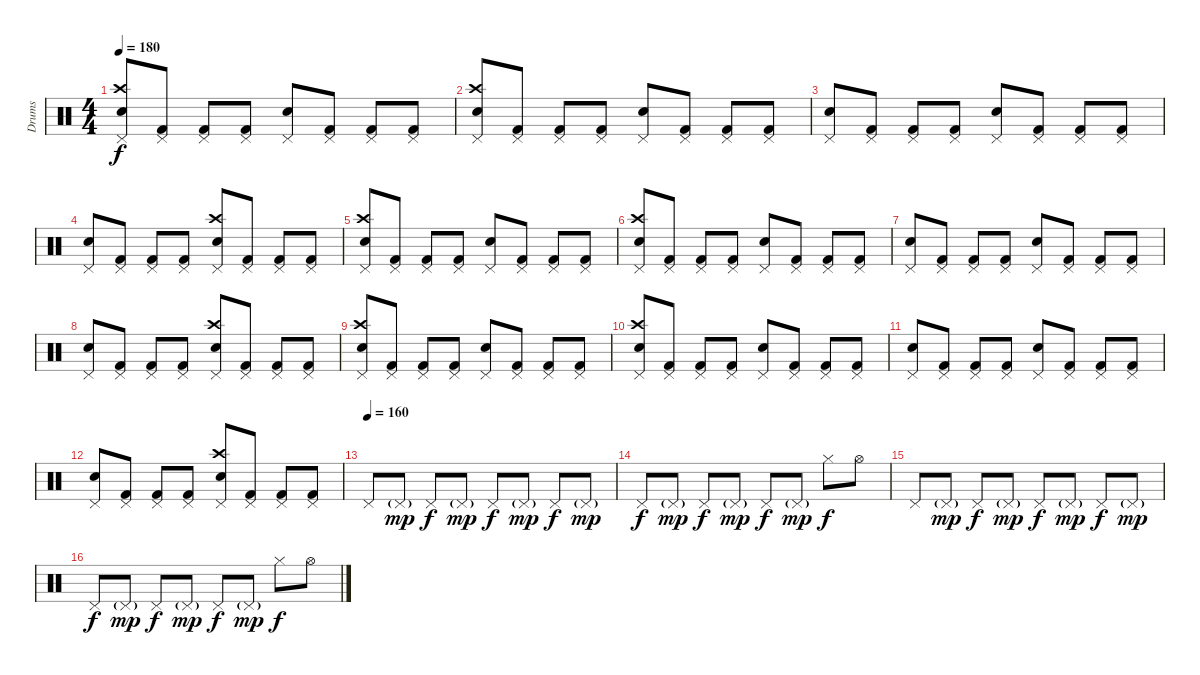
\track ("Drums" "Drums") {instrument percussion}
\staff {score}
\articulation defaults
\ts (4 4)
\tempo 180
\clef neutral
\ks c
("Pedal Hi-Hat (hit)" "Crash high (hit)" "Snare (hit) 2").8{dy f} ("Pedal Hi-Hat (hit)" "Kick (hit) 2").8 ("Pedal Hi-Hat (hit)" "Kick (hit) 2").8 ("Pedal Hi-Hat (hit)" "Kick (hit) 2").8 ("Pedal Hi-Hat (hit)" "Snare (hit) 2").8 ("Pedal Hi-Hat (hit)" "Kick (hit) 2").8 ("Pedal Hi-Hat (hit)" "Kick (hit) 2").8 ("Pedal Hi-Hat (hit)" "Kick (hit) 2").8 |
("Pedal Hi-Hat (hit)" "Crash high (hit)" "Snare (hit) 2").8 ("Pedal Hi-Hat (hit)" "Kick (hit) 2").8 ("Pedal Hi-Hat (hit)" "Kick (hit) 2").8 ("Pedal Hi-Hat (hit)" "Kick (hit) 2").8 ("Pedal Hi-Hat (hit)" "Snare (hit) 2").8 ("Pedal Hi-Hat (hit)" "Kick (hit) 2").8 ("Pedal Hi-Hat (hit)" "Kick (hit) 2").8 ("Pedal Hi-Hat (hit)" "Kick (hit) 2").8 |
("Pedal Hi-Hat (hit)" "Snare (hit) 2").8 ("Pedal Hi-Hat (hit)" "Kick (hit) 2").8 ("Pedal Hi-Hat (hit)" "Kick (hit) 2").8 ("Pedal Hi-Hat (hit)" "Kick (hit) 2").8 ("Pedal Hi-Hat (hit)" "Snare (hit) 2").8 ("Pedal Hi-Hat (hit)" "Kick (hit) 2").8 ("Pedal Hi-Hat (hit)" "Kick (hit) 2").8 ("Pedal Hi-Hat (hit)" "Kick (hit) 2").8 |
("Pedal Hi-Hat (hit)" "Snare (hit) 2").8 ("Pedal Hi-Hat (hit)" "Kick (hit) 2").8 ("Pedal Hi-Hat (hit)" "Kick (hit) 2").8 ("Pedal Hi-Hat (hit)" "Kick (hit) 2").8 ("Pedal Hi-Hat (hit)" "Crash high (hit)" "Snare (hit) 2").8 ("Pedal Hi-Hat (hit)" "Kick (hit) 2").8 ("Pedal Hi-Hat (hit)" "Kick (hit) 2").8 ("Pedal Hi-Hat (hit)" "Kick (hit) 2").8 |
("Pedal Hi-Hat (hit)" "Crash high (hit)" "Snare (hit) 2").8 ("Pedal Hi-Hat (hit)" "Kick (hit) 2").8 ("Pedal Hi-Hat (hit)" "Kick (hit) 2").8 ("Pedal Hi-Hat (hit)" "Kick (hit) 2").8 ("Pedal Hi-Hat (hit)" "Snare (hit) 2").8 ("Pedal Hi-Hat (hit)" "Kick (hit) 2").8 ("Pedal Hi-Hat (hit)" "Kick (hit) 2").8 ("Pedal Hi-Hat (hit)" "Kick (hit) 2").8 |
("Pedal Hi-Hat (hit)" "Crash high (hit)" "Snare (hit) 2").8 ("Pedal Hi-Hat (hit)" "Kick (hit) 2").8 ("Pedal Hi-Hat (hit)" "Kick (hit) 2").8 ("Pedal Hi-Hat (hit)" "Kick (hit) 2").8 ("Pedal Hi-Hat (hit)" "Snare (hit) 2").8 ("Pedal Hi-Hat (hit)" "Kick (hit) 2").8 ("Pedal Hi-Hat (hit)" "Kick (hit) 2").8 ("Pedal Hi-Hat (hit)" "Kick (hit) 2").8 |
("Pedal Hi-Hat (hit)" "Snare (hit) 2").8 ("Pedal Hi-Hat (hit)" "Kick (hit) 2").8 ("Pedal Hi-Hat (hit)" "Kick (hit) 2").8 ("Pedal Hi-Hat (hit)" "Kick (hit) 2").8 ("Pedal Hi-Hat (hit)" "Snare (hit) 2").8 ("Pedal Hi-Hat (hit)" "Kick (hit) 2").8 ("Pedal Hi-Hat (hit)" "Kick (hit) 2").8 ("Pedal Hi-Hat (hit)" "Kick (hit) 2").8 |
("Pedal Hi-Hat (hit)" "Snare (hit) 2").8 ("Pedal Hi-Hat (hit)" "Kick (hit) 2").8 ("Pedal Hi-Hat (hit)" "Kick (hit) 2").8 ("Pedal Hi-Hat (hit)" "Kick (hit) 2").8 ("Pedal Hi-Hat (hit)" "Crash high (hit)" "Snare (hit) 2").8 ("Pedal Hi-Hat (hit)" "Kick (hit) 2").8 ("Pedal Hi-Hat (hit)" "Kick (hit) 2").8 ("Pedal Hi-Hat (hit)" "Kick (hit) 2").8 |
("Pedal Hi-Hat (hit)" "Crash high (hit)" "Snare (hit) 2").8 ("Pedal Hi-Hat (hit)" "Kick (hit) 2").8 ("Pedal Hi-Hat (hit)" "Kick (hit) 2").8 ("Pedal Hi-Hat (hit)" "Kick (hit) 2").8 ("Pedal Hi-Hat (hit)" "Snare (hit) 2").8 ("Pedal Hi-Hat (hit)" "Kick (hit) 2").8 ("Pedal Hi-Hat (hit)" "Kick (hit) 2").8 ("Pedal Hi-Hat (hit)" "Kick (hit) 2").8 |
("Pedal Hi-Hat (hit)" "Crash high (hit)" "Snare (hit) 2").8 ("Pedal Hi-Hat (hit)" "Kick (hit) 2").8 ("Pedal Hi-Hat (hit)" "Kick (hit) 2").8 ("Pedal Hi-Hat (hit)" "Kick (hit) 2").8 ("Pedal Hi-Hat (hit)" "Snare (hit) 2").8 ("Pedal Hi-Hat (hit)" "Kick (hit) 2").8 ("Pedal Hi-Hat (hit)" "Kick (hit) 2").8 ("Pedal Hi-Hat (hit)" "Kick (hit) 2").8 |
("Pedal Hi-Hat (hit)" "Snare (hit) 2").8 ("Pedal Hi-Hat (hit)" "Kick (hit) 2").8 ("Pedal Hi-Hat (hit)" "Kick (hit) 2").8 ("Pedal Hi-Hat (hit)" "Kick (hit) 2").8 ("Pedal Hi-Hat (hit)" "Snare (hit) 2").8 ("Pedal Hi-Hat (hit)" "Kick (hit) 2").8 ("Pedal Hi-Hat (hit)" "Kick (hit) 2").8 ("Pedal Hi-Hat (hit)" "Kick (hit) 2").8 |
("Pedal Hi-Hat (hit)" "Snare (hit) 2").8 ("Pedal Hi-Hat (hit)" "Kick (hit) 2").8 ("Pedal Hi-Hat (hit)" "Kick (hit) 2").8 ("Pedal Hi-Hat (hit)" "Kick (hit) 2").8 ("Pedal Hi-Hat (hit)" "Crash high (hit)" "Snare (hit) 2").8 ("Pedal Hi-Hat (hit)" "Kick (hit) 2").8 ("Pedal Hi-Hat (hit)" "Kick (hit) 2").8 ("Pedal Hi-Hat (hit)" "Kick (hit) 2").8 |
\tempo (160)
"Pedal Hi-Hat (hit)".8 "Pedal Hi-Hat (hit)"{g}.8{dy mp} "Pedal Hi-Hat (hit)".8{dy f} "Pedal Hi-Hat (hit)"{g}.8{dy mp} "Pedal Hi-Hat (hit)".8{dy f} "Pedal Hi-Hat (hit)"{g}.8{dy mp} "Pedal Hi-Hat (hit)".8{dy f} "Pedal Hi-Hat (hit)"{g}.8{dy mp} |
"Pedal Hi-Hat (hit)".8{dy f} "Pedal Hi-Hat (hit)"{g}.8{dy mp} "Pedal Hi-Hat (hit)".8{dy f} "Pedal Hi-Hat (hit)"{g}.8{dy mp} "Pedal Hi-Hat (hit)".8{dy f} "Pedal Hi-Hat (hit)"{g}.8{dy mp} "Hi-Hat (closed)".8{dy f} "Hi-Hat (open)".8 |
"Pedal Hi-Hat (hit)".8 "Pedal Hi-Hat (hit)"{g}.8{dy mp} "Pedal Hi-Hat (hit)".8{dy f} "Pedal Hi-Hat (hit)"{g}.8{dy mp} "Pedal Hi-Hat (hit)".8{dy f} "Pedal Hi-Hat (hit)"{g}.8{dy mp} "Pedal Hi-Hat (hit)".8{dy f} "Pedal Hi-Hat (hit)"{g}.8{dy mp} |
"Pedal Hi-Hat (hit)".8{dy f} "Pedal Hi-Hat (hit)"{g}.8{dy mp} "Pedal Hi-Hat (hit)".8{dy f} "Pedal Hi-Hat (hit)"{g}.8{dy mp} "Pedal Hi-Hat (hit)".8{dy f} "Pedal Hi-Hat (hit)"{g}.8{dy mp} "Hi-Hat (closed)".8{dy f} "Hi-Hat (open)".8
